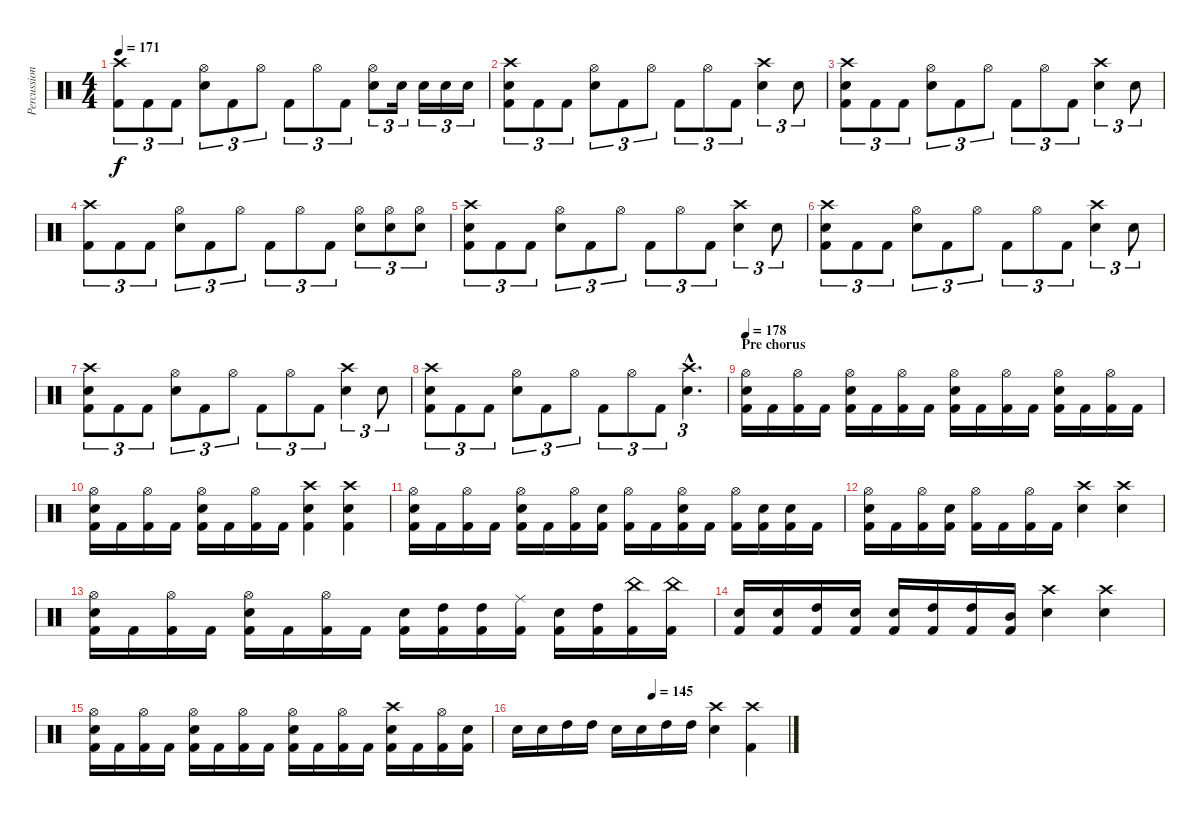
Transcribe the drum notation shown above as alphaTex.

\track ("Percussion" "Percussion") {instrument percussion}
\staff {score}
\articulation defaults
\ts (4 4)
\tempo 171
\clef neutral
\ks c
("Crash high (hit)" "Kick (hit) 2").8{tu (3 2) dy f} "Kick (hit) 2".8{tu (3 2)} "Kick (hit) 2".8{tu (3 2)} ("Hi-Hat (open)" "Electric Snare (hit)").8{tu (3 2)} "Kick (hit) 2".8{tu (3 2)} "Hi-Hat (open)".8{tu (3 2)} "Kick (hit) 2".8{tu (3 2)} "Hi-Hat (open)".8{tu (3 2)} "Kick (hit) 2".8{tu (3 2)} ("Hi-Hat (open)" "Electric Snare (hit)").8{tu (3 2)} "Electric Snare (hit)".16{tu (3 2)} "Electric Snare (hit)".16{tu (3 2)} "Electric Snare (hit)".16{tu (3 2)} "Electric Snare (hit)".16{tu (3 2)} |
("Crash high (hit)" "Electric Snare (hit)" "Kick (hit) 2").8{tu (3 2)} "Kick (hit) 2".8{tu (3 2)} "Kick (hit) 2".8{tu (3 2)} ("Hi-Hat (open)" "Electric Snare (hit)").8{tu (3 2)} "Kick (hit) 2".8{tu (3 2)} "Hi-Hat (open)".8{tu (3 2)} "Kick (hit) 2".8{tu (3 2)} "Hi-Hat (open)".8{tu (3 2)} "Kick (hit) 2".8{tu (3 2)} ("Crash high (hit)" "Electric Snare (hit)").4{tu (3 2)} "Electric Snare (hit)".8{tu (3 2)} |
("Crash high (hit)" "Electric Snare (hit)" "Kick (hit) 2").8{tu (3 2)} "Kick (hit) 2".8{tu (3 2)} "Kick (hit) 2".8{tu (3 2)} ("Hi-Hat (open)" "Electric Snare (hit)").8{tu (3 2)} "Kick (hit) 2".8{tu (3 2)} "Hi-Hat (open)".8{tu (3 2)} "Kick (hit) 2".8{tu (3 2)} "Hi-Hat (open)".8{tu (3 2)} "Kick (hit) 2".8{tu (3 2)} ("Crash high (hit)" "Electric Snare (hit)").4{tu (3 2)} "Electric Snare (hit)".8{tu (3 2)} |
("Crash high (hit)" "Kick (hit) 2").8{tu (3 2)} "Kick (hit) 2".8{tu (3 2)} "Kick (hit) 2".8{tu (3 2)} ("Hi-Hat (open)" "Electric Snare (hit)").8{tu (3 2)} "Kick (hit) 2".8{tu (3 2)} "Hi-Hat (open)".8{tu (3 2)} "Kick (hit) 2".8{tu (3 2)} "Hi-Hat (open)".8{tu (3 2)} "Kick (hit) 2".8{tu (3 2)} ("Hi-Hat (open)" "Electric Snare (hit)").8{tu (3 2)} ("Hi-Hat (open)" "Electric Snare (hit)").8{tu (3 2)} ("Hi-Hat (open)" "Electric Snare (hit)").8{tu (3 2)} |
("Crash high (hit)" "Electric Snare (hit)" "Kick (hit) 2").8{tu (3 2)} "Kick (hit) 2".8{tu (3 2)} "Kick (hit) 2".8{tu (3 2)} ("Hi-Hat (open)" "Electric Snare (hit)").8{tu (3 2)} "Kick (hit) 2".8{tu (3 2)} "Hi-Hat (open)".8{tu (3 2)} "Kick (hit) 2".8{tu (3 2)} "Hi-Hat (open)".8{tu (3 2)} "Kick (hit) 2".8{tu (3 2)} ("Crash high (hit)" "Electric Snare (hit)").4{tu (3 2)} "Electric Snare (hit)".8{tu (3 2)} |
("Crash high (hit)" "Electric Snare (hit)" "Kick (hit) 2").8{tu (3 2)} "Kick (hit) 2".8{tu (3 2)} "Kick (hit) 2".8{tu (3 2)} ("Hi-Hat (open)" "Electric Snare (hit)").8{tu (3 2)} "Kick (hit) 2".8{tu (3 2)} "Hi-Hat (open)".8{tu (3 2)} "Kick (hit) 2".8{tu (3 2)} "Hi-Hat (open)".8{tu (3 2)} "Kick (hit) 2".8{tu (3 2)} ("Crash high (hit)" "Electric Snare (hit)").4{tu (3 2)} "Electric Snare (hit)".8{tu (3 2)} |
("Crash high (hit)" "Electric Snare (hit)" "Kick (hit) 2").8{tu (3 2)} "Kick (hit) 2".8{tu (3 2)} "Kick (hit) 2".8{tu (3 2)} ("Hi-Hat (open)" "Electric Snare (hit)").8{tu (3 2)} "Kick (hit) 2".8{tu (3 2)} "Hi-Hat (open)".8{tu (3 2)} "Kick (hit) 2".8{tu (3 2)} "Hi-Hat (open)".8{tu (3 2)} "Kick (hit) 2".8{tu (3 2)} ("Crash high (hit)" "Electric Snare (hit)").4{tu (3 2)} "Electric Snare (hit)".8{tu (3 2)} |
("Crash high (hit)" "Electric Snare (hit)" "Kick (hit) 2").8{tu (3 2)} "Kick (hit) 2".8{tu (3 2)} "Kick (hit) 2".8{tu (3 2)} ("Hi-Hat (open)" "Electric Snare (hit)").8{tu (3 2)} "Kick (hit) 2".8{tu (3 2)} "Hi-Hat (open)".8{tu (3 2)} "Kick (hit) 2".8{tu (3 2)} "Hi-Hat (open)".8{tu (3 2)} "Kick (hit) 2".8{tu (3 2)} ("Crash high (hit)"{hac} "Electric Snare (hit)"{hac}).4{d tu (3 2)} |
\section ("" "Pre chorus")
\tempo 178
("Hi-Hat (open)" "Electric Snare (hit)" "Kick (hit) 2").16 "Kick (hit) 2".16 ("Hi-Hat (open)" "Kick (hit) 2").16 "Kick (hit) 2".16 ("Hi-Hat (open)" "Electric Snare (hit)" "Kick (hit) 2").16 "Kick (hit) 2".16 ("Hi-Hat (open)" "Kick (hit) 2").16 "Kick (hit) 2".16 ("Hi-Hat (open)" "Electric Snare (hit)" "Kick (hit) 2").16 "Kick (hit) 2".16 ("Hi-Hat (open)" "Kick (hit) 2").16 "Kick (hit) 2".16 ("Hi-Hat (open)" "Electric Snare (hit)" "Kick (hit) 2").16 "Kick (hit) 2".16 ("Hi-Hat (open)" "Kick (hit) 2").16 "Kick (hit) 2".16 |
("Hi-Hat (open)" "Electric Snare (hit)" "Kick (hit) 2").16 "Kick (hit) 2".16 ("Hi-Hat (open)" "Kick (hit) 2").16 "Kick (hit) 2".16 ("Hi-Hat (open)" "Electric Snare (hit)" "Kick (hit) 2").16 "Kick (hit) 2".16 ("Hi-Hat (open)" "Kick (hit) 2").16 "Kick (hit) 2".16 ("Crash high (hit)" "Electric Snare (hit)" "Kick (hit) 2").4 ("Crash high (hit)" "Electric Snare (hit)" "Kick (hit) 2").4 |
("Hi-Hat (open)" "Electric Snare (hit)" "Kick (hit) 2").16 "Kick (hit) 2".16 ("Hi-Hat (open)" "Kick (hit) 2").16 "Kick (hit) 2".16 ("Hi-Hat (open)" "Electric Snare (hit)" "Kick (hit) 2").16 "Kick (hit) 2".16 ("Hi-Hat (open)" "Kick (hit) 2").16 ("Electric Snare (hit)" "Kick (hit) 2").16 ("Hi-Hat (open)" "Kick (hit) 2").16 "Kick (hit) 2".16 ("Hi-Hat (open)" "Electric Snare (hit)" "Kick (hit) 2").16 "Kick (hit) 2".16 ("Hi-Hat (open)" "Kick (hit) 2").16 ("Electric Snare (hit)" "Kick (hit) 2").16 ("Electric Snare (hit)" "Kick (hit) 2").16 "Kick (hit) 2".16 |
("Hi-Hat (open)" "Electric Snare (hit)" "Kick (hit) 2").16 "Kick (hit) 2".16 ("Hi-Hat (open)" "Kick (hit) 2").16 ("Electric Snare (hit)" "Kick (hit) 2").16 ("Hi-Hat (open)" "Kick (hit) 2").16 "Kick (hit) 2".16 ("Hi-Hat (open)" "Kick (hit) 2").16 "Kick (hit) 2".16 ("Crash high (hit)" "Electric Snare (hit)").4 ("Crash high (hit)" "Electric Snare (hit)").4 |
("Hi-Hat (open)" "Electric Snare (hit)" "Kick (hit) 2").16 "Kick (hit) 2".16 ("Hi-Hat (open)" "Kick (hit) 2").16 "Kick (hit) 2".16 ("Hi-Hat (open)" "Electric Snare (hit)" "Kick (hit) 2").16 "Kick (hit) 2".16 ("Hi-Hat (open)" "Kick (hit) 2").16 "Kick (hit) 2".16 ("Electric Snare (hit)" "Kick (hit) 2").16 ("High Tom (hit)" "Kick (hit) 2").16 ("High Tom (hit)" "Kick (hit) 2").16 ("Ride (middle)" "Kick (hit) 2").16 ("Electric Snare (hit)" "Kick (hit) 2").16 ("High Tom (hit)" "Kick (hit) 2").16 ("China (hit)" "Kick (hit) 2").16 ("China (hit)" "Kick (hit) 2").16 |
("Electric Snare (hit)" "Kick (hit) 2").16 ("Electric Snare (hit)" "Kick (hit) 2").16 ("High Tom (hit)" "Kick (hit) 2").16 ("Electric Snare (hit)" "Kick (hit) 2").16 ("Electric Snare (hit)" "Kick (hit) 2").16 ("High Tom (hit)" "Kick (hit) 2").16 ("High Tom (hit)" "Kick (hit) 2").16 ("Mid Tom (hit)" "Kick (hit) 2").16 ("Crash high (hit)" "Electric Snare (hit)").4 ("Crash high (hit)" "Electric Snare (hit)").4 |
("Hi-Hat (open)" "Electric Snare (hit)" "Kick (hit) 2").16 "Kick (hit) 2".16 ("Hi-Hat (open)" "Kick (hit) 2").16 "Kick (hit) 2".16 ("Hi-Hat (open)" "Electric Snare (hit)" "Kick (hit) 2").16 "Kick (hit) 2".16 ("Hi-Hat (open)" "Kick (hit) 2").16 "Kick (hit) 2".16 ("Hi-Hat (open)" "Electric Snare (hit)" "Kick (hit) 2").16 "Kick (hit) 2".16 ("Hi-Hat (open)" "Kick (hit) 2").16 "Kick (hit) 2".16 ("Crash high (hit)" "Electric Snare (hit)" "Kick (hit) 2").16 "Kick (hit) 2".16 ("Hi-Hat (open)" "Kick (hit) 2").16 ("Electric Snare (hit)" "Kick (hit) 2").16 |
\tempo (145 0.5)
"Electric Snare (hit)".16 "Electric Snare (hit)".16 "High Tom (hit)".16 "High Tom (hit)".16 "Electric Snare (hit)".16 "Electric Snare (hit)".16 "High Tom (hit)".16 "High Tom (hit)".16 ("Crash high (hit)" "Electric Snare (hit)").4 ("Crash high (hit)" "Kick (hit) 2").4
